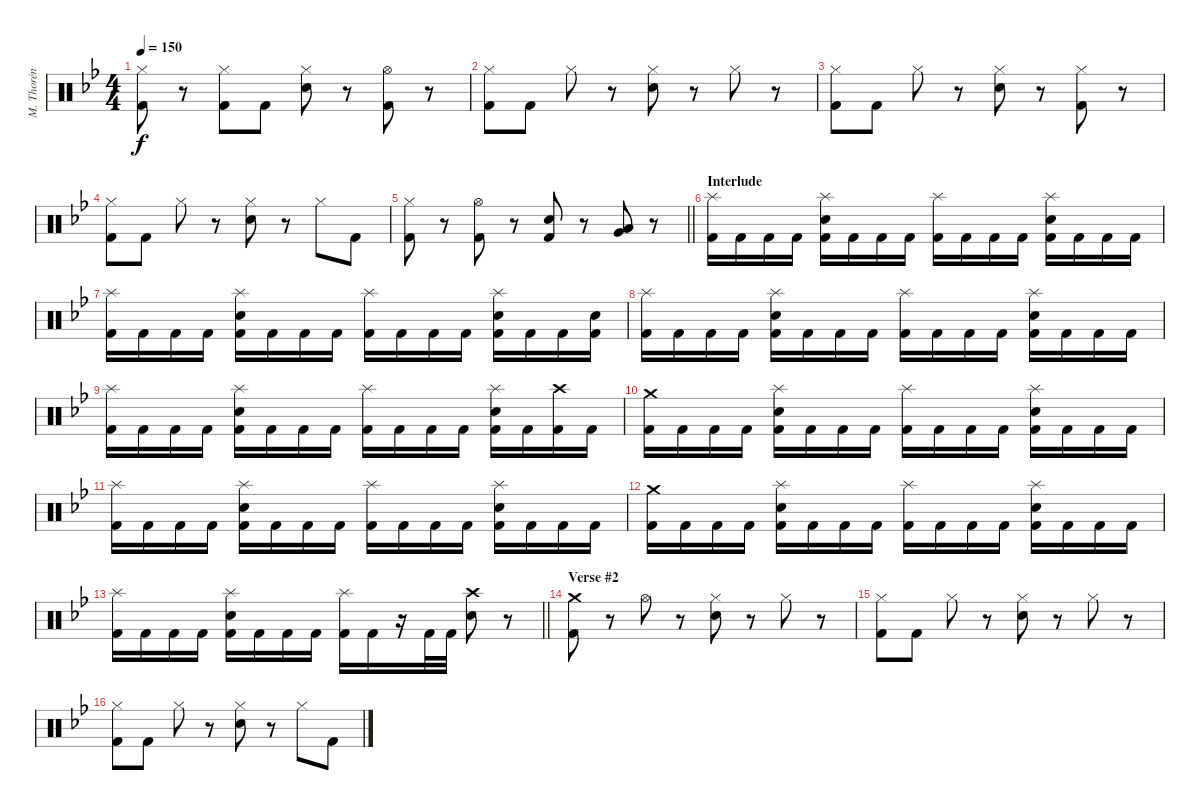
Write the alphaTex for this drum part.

\track ("M. Thorén (Drums)" "M. Thorén ") {instrument percussion}
\staff {score}
\articulation defaults
\ts (4 4)
\tempo 150
\clef neutral
\ks gminor
("Hi-Hat (closed)" "Kick (hit) 2").8{dy f} r.8 ("Hi-Hat (closed)" "Kick (hit) 2").8 "Kick (hit) 2".8 ("Hi-Hat (closed)" "Electric Snare (hit)").8 r.8 ("Hi-Hat (open)" "Kick (hit) 2").8 r.8 |
("Hi-Hat (closed)" "Kick (hit) 2").8 "Kick (hit) 2".8 "Hi-Hat (closed)".8 r.8 ("Hi-Hat (closed)" "Electric Snare (hit)").8 r.8 "Hi-Hat (closed)".8 r.8 |
("Hi-Hat (closed)" "Kick (hit) 2").8 "Kick (hit) 2".8 "Hi-Hat (closed)".8 r.8 ("Hi-Hat (closed)" "Electric Snare (hit)").8 r.8 ("Hi-Hat (closed)" "Kick (hit) 2").8 r.8 |
("Hi-Hat (closed)" "Kick (hit) 2").8 "Kick (hit) 2".8 "Hi-Hat (closed)".8 r.8 ("Hi-Hat (closed)" "Electric Snare (hit)").8 r.8 "Hi-Hat (closed)".8 "Kick (hit) 2".8 |
\barLineRight lightlight
("Hi-Hat (closed)" "Kick (hit) 2").8 r.8 ("Hi-Hat (open)" "Kick (hit) 2").8 r.8 ("Electric Snare (hit)" "Kick (hit) 2").8 r.8 ("Very Low Tom (hit)" "Low Floor Tom (hit)").8 r.8 |
\section ("" "Interlude")
("Splash (hit)" "Kick (hit) 2").16 "Kick (hit) 2".16 "Kick (hit) 2".16 "Kick (hit) 2".16 ("Splash (hit)" "Electric Snare (hit)" "Kick (hit) 2").16 "Kick (hit) 2".16 "Kick (hit) 2".16 "Kick (hit) 2".16 ("Splash (hit)" "Kick (hit) 2").16 "Kick (hit) 2".16 "Kick (hit) 2".16 "Kick (hit) 2".16 ("Splash (hit)" "Electric Snare (hit)" "Kick (hit) 2").16 "Kick (hit) 2".16 "Kick (hit) 2".16 "Kick (hit) 2".16 |
("Splash (hit)" "Kick (hit) 2").16 "Kick (hit) 2".16 "Kick (hit) 2".16 "Kick (hit) 2".16 ("Splash (hit)" "Electric Snare (hit)" "Kick (hit) 2").16 "Kick (hit) 2".16 "Kick (hit) 2".16 "Kick (hit) 2".16 ("Splash (hit)" "Kick (hit) 2").16 "Kick (hit) 2".16 "Kick (hit) 2".16 "Kick (hit) 2".16 ("Splash (hit)" "Electric Snare (hit)" "Kick (hit) 2").16 "Kick (hit) 2".16 "Kick (hit) 2".16 ("Electric Snare (hit)" "Kick (hit) 2").16 |
("Splash (hit)" "Kick (hit) 2").16 "Kick (hit) 2".16 "Kick (hit) 2".16 "Kick (hit) 2".16 ("Splash (hit)" "Electric Snare (hit)" "Kick (hit) 2").16 "Kick (hit) 2".16 "Kick (hit) 2".16 "Kick (hit) 2".16 ("Splash (hit)" "Kick (hit) 2").16 "Kick (hit) 2".16 "Kick (hit) 2".16 "Kick (hit) 2".16 ("Splash (hit)" "Electric Snare (hit)" "Kick (hit) 2").16 "Kick (hit) 2".16 "Kick (hit) 2".16 "Kick (hit) 2".16 |
("Splash (hit)" "Kick (hit) 2").16 "Kick (hit) 2".16 "Kick (hit) 2".16 "Kick (hit) 2".16 ("Splash (hit)" "Electric Snare (hit)" "Kick (hit) 2").16 "Kick (hit) 2".16 "Kick (hit) 2".16 "Kick (hit) 2".16 ("Splash (hit)" "Kick (hit) 2").16 "Kick (hit) 2".16 "Kick (hit) 2".16 "Kick (hit) 2".16 ("Splash (hit)" "Electric Snare (hit)" "Kick (hit) 2").16 "Kick (hit) 2".16 ("Crash high (hit)" "Kick (hit) 2").16 "Kick (hit) 2".16 |
("Crash medium (hit)" "Kick (hit) 2").16 "Kick (hit) 2".16 "Kick (hit) 2".16 "Kick (hit) 2".16 ("Splash (hit)" "Electric Snare (hit)" "Kick (hit) 2").16 "Kick (hit) 2".16 "Kick (hit) 2".16 "Kick (hit) 2".16 ("Splash (hit)" "Kick (hit) 2").16 "Kick (hit) 2".16 "Kick (hit) 2".16 "Kick (hit) 2".16 ("Splash (hit)" "Electric Snare (hit)" "Kick (hit) 2").16 "Kick (hit) 2".16 "Kick (hit) 2".16 "Kick (hit) 2".16 |
("Splash (hit)" "Kick (hit) 2").16 "Kick (hit) 2".16 "Kick (hit) 2".16 "Kick (hit) 2".16 ("Splash (hit)" "Electric Snare (hit)" "Kick (hit) 2").16 "Kick (hit) 2".16 "Kick (hit) 2".16 "Kick (hit) 2".16 ("Splash (hit)" "Kick (hit) 2").16 "Kick (hit) 2".16 "Kick (hit) 2".16 "Kick (hit) 2".16 ("Splash (hit)" "Electric Snare (hit)" "Kick (hit) 2").16 "Kick (hit) 2".16 "Kick (hit) 2".16 "Kick (hit) 2".16 |
("Crash medium (hit)" "Kick (hit) 2").16 "Kick (hit) 2".16 "Kick (hit) 2".16 "Kick (hit) 2".16 ("Splash (hit)" "Electric Snare (hit)" "Kick (hit) 2").16 "Kick (hit) 2".16 "Kick (hit) 2".16 "Kick (hit) 2".16 ("Splash (hit)" "Kick (hit) 2").16 "Kick (hit) 2".16 "Kick (hit) 2".16 "Kick (hit) 2".16 ("Splash (hit)" "Electric Snare (hit)" "Kick (hit) 2").16 "Kick (hit) 2".16 "Kick (hit) 2".16 "Kick (hit) 2".16 |
\barLineRight lightlight
("Splash (hit)" "Kick (hit) 2").16 "Kick (hit) 2".16 "Kick (hit) 2".16 "Kick (hit) 2".16 ("Splash (hit)" "Electric Snare (hit)" "Kick (hit) 2").16 "Kick (hit) 2".16 "Kick (hit) 2".16 "Kick (hit) 2".16 ("Splash (hit)" "Kick (hit) 2").16 "Kick (hit) 2".16 r.16 "Kick (hit) 2".32 "Kick (hit) 2".32 ("Crash high (hit)" "Electric Snare (hit)").8 r.8 |
\section ("" "Verse #2")
("Crash medium (hit)" "Kick (hit) 2").8 r.8 "Hi-Hat (open)".8 r.8 ("Hi-Hat (closed)" "Electric Snare (hit)").8 r.8 "Hi-Hat (closed)".8 r.8 |
("Hi-Hat (closed)" "Kick (hit) 2").8 "Kick (hit) 2".8 "Hi-Hat (closed)".8 r.8 ("Hi-Hat (closed)" "Electric Snare (hit)").8 r.8 "Hi-Hat (closed)".8 r.8 |
("Hi-Hat (closed)" "Kick (hit) 2").8 "Kick (hit) 2".8 "Hi-Hat (closed)".8 r.8 ("Hi-Hat (closed)" "Electric Snare (hit)").8 r.8 "Hi-Hat (closed)".8 "Kick (hit) 2".8
